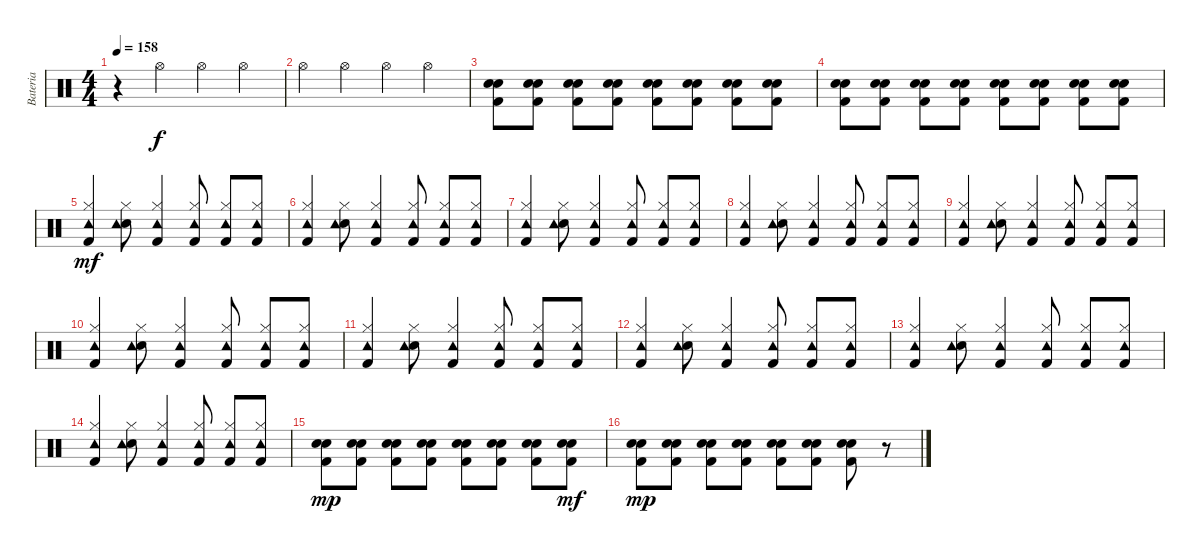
\track ("Bateria" "Bateria") {instrument percussion}
\staff {score}
\articulation defaults
\ts (4 4)
\tempo 158
\clef neutral
\ks c
r.4{dy mp} "Hi-Hat (open)".4{dy f} "Hi-Hat (open)".4 "Hi-Hat (open)".4 |
"Hi-Hat (open)".4 "Hi-Hat (open)".4 "Hi-Hat (open)".4 "Hi-Hat (open)".4 |
("Electric Snare (hit)" "Kick (hit) 2" "Snare (hit) 2").8 ("Electric Snare (hit)" "Kick (hit) 2" "Snare (hit) 2").8 ("Electric Snare (hit)" "Kick (hit) 2" "Snare (hit) 2").8 ("Electric Snare (hit)" "Kick (hit) 2" "Snare (hit) 2").8 ("Electric Snare (hit)" "Kick (hit) 2" "Snare (hit) 2").8 ("Electric Snare (hit)" "Kick (hit) 2" "Snare (hit) 2").8 ("Electric Snare (hit)" "Kick (hit) 2" "Snare (hit) 2").8 ("Electric Snare (hit)" "Kick (hit) 2" "Snare (hit) 2").8 |
("Electric Snare (hit)" "Kick (hit) 2" "Snare (hit) 2").8 ("Electric Snare (hit)" "Kick (hit) 2" "Snare (hit) 2").8 ("Electric Snare (hit)" "Kick (hit) 2" "Snare (hit) 2").8 ("Electric Snare (hit)" "Kick (hit) 2" "Snare (hit) 2").8 ("Electric Snare (hit)" "Kick (hit) 2" "Snare (hit) 2").8 ("Electric Snare (hit)" "Kick (hit) 2" "Snare (hit) 2").8 ("Electric Snare (hit)" "Kick (hit) 2" "Snare (hit) 2").8 ("Electric Snare (hit)" "Kick (hit) 2" "Snare (hit) 2").8 |
("Hi-Hat (closed)" "Kick (hit) 2" "Tambourine (hit)").4{dy mf} ("Hi-Hat (closed)" "Snare (hit) 2" "Tambourine (hit)").8 ("Hi-Hat (closed)" "Kick (hit) 2" "Tambourine (hit)").4 ("Hi-Hat (closed)" "Kick (hit) 2" "Tambourine (hit)").8 ("Hi-Hat (closed)" "Kick (hit) 2" "Tambourine (hit)").8 ("Hi-Hat (closed)" "Kick (hit) 2" "Tambourine (hit)").8 |
("Hi-Hat (closed)" "Kick (hit) 2" "Tambourine (hit)").4 ("Hi-Hat (closed)" "Snare (hit) 2" "Tambourine (hit)").8 ("Hi-Hat (closed)" "Kick (hit) 2" "Tambourine (hit)").4 ("Hi-Hat (closed)" "Kick (hit) 2" "Tambourine (hit)").8 ("Hi-Hat (closed)" "Kick (hit) 2" "Tambourine (hit)").8 ("Hi-Hat (closed)" "Kick (hit) 2" "Tambourine (hit)").8 |
("Hi-Hat (closed)" "Kick (hit) 2" "Tambourine (hit)").4 ("Hi-Hat (closed)" "Snare (hit) 2" "Tambourine (hit)").8 ("Hi-Hat (closed)" "Kick (hit) 2" "Tambourine (hit)").4 ("Hi-Hat (closed)" "Kick (hit) 2" "Tambourine (hit)").8 ("Hi-Hat (closed)" "Kick (hit) 2" "Tambourine (hit)").8 ("Hi-Hat (closed)" "Kick (hit) 2" "Tambourine (hit)").8 |
("Hi-Hat (closed)" "Kick (hit) 2" "Tambourine (hit)").4 ("Hi-Hat (closed)" "Snare (hit) 2" "Tambourine (hit)").8 ("Hi-Hat (closed)" "Kick (hit) 2" "Tambourine (hit)").4 ("Hi-Hat (closed)" "Kick (hit) 2" "Tambourine (hit)").8 ("Hi-Hat (closed)" "Kick (hit) 2" "Tambourine (hit)").8 ("Hi-Hat (closed)" "Kick (hit) 2" "Tambourine (hit)").8 |
("Hi-Hat (closed)" "Kick (hit) 2" "Tambourine (hit)").4 ("Hi-Hat (closed)" "Snare (hit) 2" "Tambourine (hit)").8 ("Hi-Hat (closed)" "Kick (hit) 2" "Tambourine (hit)").4 ("Hi-Hat (closed)" "Kick (hit) 2" "Tambourine (hit)").8 ("Hi-Hat (closed)" "Kick (hit) 2" "Tambourine (hit)").8 ("Hi-Hat (closed)" "Kick (hit) 2" "Tambourine (hit)").8 |
("Hi-Hat (closed)" "Kick (hit) 2" "Tambourine (hit)").4 ("Hi-Hat (closed)" "Snare (hit) 2" "Tambourine (hit)").8 ("Hi-Hat (closed)" "Kick (hit) 2" "Tambourine (hit)").4 ("Hi-Hat (closed)" "Kick (hit) 2" "Tambourine (hit)").8 ("Hi-Hat (closed)" "Kick (hit) 2" "Tambourine (hit)").8 ("Hi-Hat (closed)" "Kick (hit) 2" "Tambourine (hit)").8 |
("Hi-Hat (closed)" "Kick (hit) 2" "Tambourine (hit)").4 ("Hi-Hat (closed)" "Snare (hit) 2" "Tambourine (hit)").8 ("Hi-Hat (closed)" "Kick (hit) 2" "Tambourine (hit)").4 ("Hi-Hat (closed)" "Kick (hit) 2" "Tambourine (hit)").8 ("Hi-Hat (closed)" "Kick (hit) 2" "Tambourine (hit)").8 ("Hi-Hat (closed)" "Kick (hit) 2" "Tambourine (hit)").8 |
("Hi-Hat (closed)" "Kick (hit) 2" "Tambourine (hit)").4 ("Hi-Hat (closed)" "Snare (hit) 2" "Tambourine (hit)").8 ("Hi-Hat (closed)" "Kick (hit) 2" "Tambourine (hit)").4 ("Hi-Hat (closed)" "Kick (hit) 2" "Tambourine (hit)").8 ("Hi-Hat (closed)" "Kick (hit) 2" "Tambourine (hit)").8 ("Hi-Hat (closed)" "Kick (hit) 2" "Tambourine (hit)").8 |
("Hi-Hat (closed)" "Kick (hit) 2" "Tambourine (hit)").4 ("Hi-Hat (closed)" "Snare (hit) 2" "Tambourine (hit)").8 ("Hi-Hat (closed)" "Kick (hit) 2" "Tambourine (hit)").4 ("Hi-Hat (closed)" "Kick (hit) 2" "Tambourine (hit)").8 ("Hi-Hat (closed)" "Kick (hit) 2" "Tambourine (hit)").8 ("Hi-Hat (closed)" "Kick (hit) 2" "Tambourine (hit)").8 |
("Hi-Hat (closed)" "Kick (hit) 2" "Tambourine (hit)").4 ("Hi-Hat (closed)" "Snare (hit) 2" "Tambourine (hit)").8 ("Hi-Hat (closed)" "Kick (hit) 2" "Tambourine (hit)").4 ("Hi-Hat (closed)" "Kick (hit) 2" "Tambourine (hit)").8 ("Hi-Hat (closed)" "Kick (hit) 2" "Tambourine (hit)").8 ("Hi-Hat (closed)" "Kick (hit) 2" "Tambourine (hit)").8 |
("Electric Snare (hit)" "Kick (hit) 2" "Snare (hit) 2").8{dy mp} ("Electric Snare (hit)" "Kick (hit) 2" "Snare (hit) 2").8 ("Electric Snare (hit)" "Kick (hit) 2" "Snare (hit) 2").8 ("Electric Snare (hit)" "Kick (hit) 2" "Snare (hit) 2").8 ("Electric Snare (hit)" "Kick (hit) 2" "Snare (hit) 2").8 ("Electric Snare (hit)" "Kick (hit) 2" "Snare (hit) 2").8 ("Electric Snare (hit)" "Kick (hit) 2" "Snare (hit) 2").8 ("Electric Snare (hit)" "Kick (hit) 2" "Snare (hit) 2").8{dy mf} |
("Electric Snare (hit)" "Kick (hit) 2" "Snare (hit) 2").8{dy mp} ("Electric Snare (hit)" "Kick (hit) 2" "Snare (hit) 2").8 ("Electric Snare (hit)" "Kick (hit) 2" "Snare (hit) 2").8 ("Electric Snare (hit)" "Kick (hit) 2" "Snare (hit) 2").8 ("Electric Snare (hit)" "Kick (hit) 2" "Snare (hit) 2").8 ("Electric Snare (hit)" "Kick (hit) 2" "Snare (hit) 2").8 ("Electric Snare (hit)" "Kick (hit) 2" "Snare (hit) 2").8 r.8
